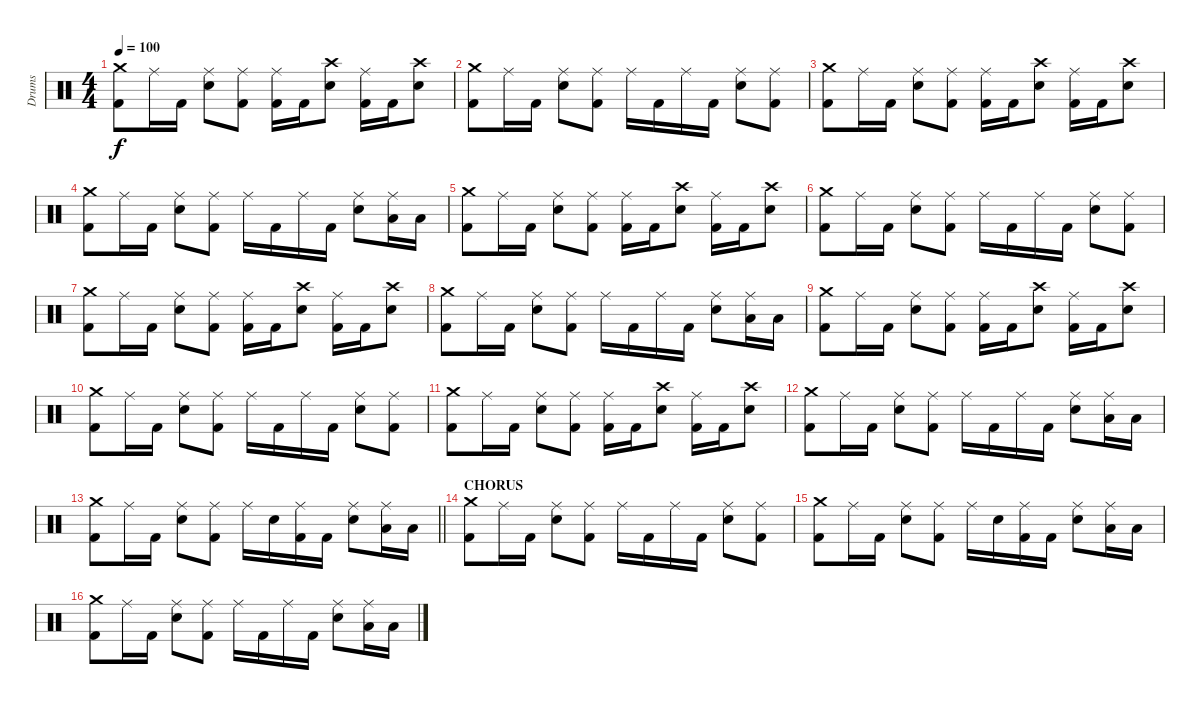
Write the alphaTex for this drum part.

\track ("Drums" "Drums") {instrument percussion}
\staff {score}
\articulation defaults
\ts (4 4)
\tempo 100
\clef neutral
\ks c
("Crash medium (hit)" "Kick (hit) 2").8{dy f} "Ride (middle)".16 "Kick (hit) 2".16 ("Ride (middle)" "Snare (hit) 2").8 ("Ride (middle)" "Kick (hit) 2").8 ("Ride (middle)" "Kick (hit) 2").16 "Kick (hit) 2".16 ("Crash high (hit)" "Snare (hit) 2").8 ("Ride (middle)" "Kick (hit) 2").16 "Kick (hit) 2".16 ("Crash high (hit)" "Snare (hit) 2").8 |
("Crash medium (hit)" "Kick (hit) 2").8 "Ride (middle)".16 "Kick (hit) 2".16 ("Ride (middle)" "Snare (hit) 2").8 ("Ride (middle)" "Kick (hit) 2").8 "Ride (middle)".16 "Kick (hit) 2".16 "Ride (middle)".16 "Kick (hit) 2".16 ("Ride (middle)" "Snare (hit) 2").8 ("Ride (middle)" "Kick (hit) 2").8 |
("Crash medium (hit)" "Kick (hit) 2").8 "Ride (middle)".16 "Kick (hit) 2".16 ("Ride (middle)" "Snare (hit) 2").8 ("Ride (middle)" "Kick (hit) 2").8 ("Ride (middle)" "Kick (hit) 2").16 "Kick (hit) 2".16 ("Crash high (hit)" "Snare (hit) 2").8 ("Ride (middle)" "Kick (hit) 2").16 "Kick (hit) 2".16 ("Crash high (hit)" "Snare (hit) 2").8 |
("Crash medium (hit)" "Kick (hit) 2").8 "Ride (middle)".16 "Kick (hit) 2".16 ("Ride (middle)" "Snare (hit) 2").8 ("Ride (middle)" "Kick (hit) 2").8 "Ride (middle)".16 "Kick (hit) 2".16 "Ride (middle)".16 "Kick (hit) 2".16 ("Ride (middle)" "Snare (hit) 2").8 ("Ride (middle)" "Low Tom (hit)").16 "Low Tom (hit)".16 |
("Crash medium (hit)" "Kick (hit) 2").8 "Ride (middle)".16 "Kick (hit) 2".16 ("Ride (middle)" "Snare (hit) 2").8 ("Ride (middle)" "Kick (hit) 2").8 ("Ride (middle)" "Kick (hit) 2").16 "Kick (hit) 2".16 ("Crash high (hit)" "Snare (hit) 2").8 ("Ride (middle)" "Kick (hit) 2").16 "Kick (hit) 2".16 ("Crash high (hit)" "Snare (hit) 2").8 |
("Crash medium (hit)" "Kick (hit) 2").8 "Ride (middle)".16 "Kick (hit) 2".16 ("Ride (middle)" "Snare (hit) 2").8 ("Ride (middle)" "Kick (hit) 2").8 "Ride (middle)".16 "Kick (hit) 2".16 "Ride (middle)".16 "Kick (hit) 2".16 ("Ride (middle)" "Snare (hit) 2").8 ("Ride (middle)" "Kick (hit) 2").8 |
("Crash medium (hit)" "Kick (hit) 2").8 "Ride (middle)".16 "Kick (hit) 2".16 ("Ride (middle)" "Snare (hit) 2").8 ("Ride (middle)" "Kick (hit) 2").8 ("Ride (middle)" "Kick (hit) 2").16 "Kick (hit) 2".16 ("Crash high (hit)" "Snare (hit) 2").8 ("Ride (middle)" "Kick (hit) 2").16 "Kick (hit) 2".16 ("Crash high (hit)" "Snare (hit) 2").8 |
("Crash medium (hit)" "Kick (hit) 2").8 "Ride (middle)".16 "Kick (hit) 2".16 ("Ride (middle)" "Snare (hit) 2").8 ("Ride (middle)" "Kick (hit) 2").8 "Ride (middle)".16 "Kick (hit) 2".16 "Ride (middle)".16 "Kick (hit) 2".16 ("Ride (middle)" "Snare (hit) 2").8 ("Ride (middle)" "Low Tom (hit)").16 "Low Tom (hit)".16 |
("Crash medium (hit)" "Kick (hit) 2").8 "Ride (middle)".16 "Kick (hit) 2".16 ("Ride (middle)" "Snare (hit) 2").8 ("Ride (middle)" "Kick (hit) 2").8 ("Ride (middle)" "Kick (hit) 2").16 "Kick (hit) 2".16 ("Crash high (hit)" "Snare (hit) 2").8 ("Ride (middle)" "Kick (hit) 2").16 "Kick (hit) 2".16 ("Crash high (hit)" "Snare (hit) 2").8 |
("Crash medium (hit)" "Kick (hit) 2").8 "Ride (middle)".16 "Kick (hit) 2".16 ("Ride (middle)" "Snare (hit) 2").8 ("Ride (middle)" "Kick (hit) 2").8 "Ride (middle)".16 "Kick (hit) 2".16 "Ride (middle)".16 "Kick (hit) 2".16 ("Ride (middle)" "Snare (hit) 2").8 ("Ride (middle)" "Kick (hit) 2").8 |
("Crash medium (hit)" "Kick (hit) 2").8 "Ride (middle)".16 "Kick (hit) 2".16 ("Ride (middle)" "Snare (hit) 2").8 ("Ride (middle)" "Kick (hit) 2").8 ("Ride (middle)" "Kick (hit) 2").16 "Kick (hit) 2".16 ("Crash high (hit)" "Snare (hit) 2").8 ("Ride (middle)" "Kick (hit) 2").16 "Kick (hit) 2".16 ("Crash high (hit)" "Snare (hit) 2").8 |
("Crash medium (hit)" "Kick (hit) 2").8 "Ride (middle)".16 "Kick (hit) 2".16 ("Ride (middle)" "Snare (hit) 2").8 ("Ride (middle)" "Kick (hit) 2").8 "Ride (middle)".16 "Kick (hit) 2".16 "Ride (middle)".16 "Kick (hit) 2".16 ("Ride (middle)" "Snare (hit) 2").8 ("Ride (middle)" "Low Tom (hit)").16 "Low Tom (hit)".16 |
\barLineRight lightlight
("Crash medium (hit)" "Kick (hit) 2").8 "Ride (middle)".16 "Kick (hit) 2".16 ("Ride (middle)" "Snare (hit) 2").8 ("Ride (middle)" "Kick (hit) 2").8 "Ride (middle)".16 "Snare (hit) 2".16 ("Ride (middle)" "Kick (hit) 2").16 "Kick (hit) 2".16 ("Ride (middle)" "Snare (hit) 2").8 ("Ride (middle)" "Low Tom (hit)").16 "Low Tom (hit)".16 |
\section ("" "CHORUS")
("Crash medium (hit)" "Kick (hit) 2").8 "Ride (middle)".16 "Kick (hit) 2".16 ("Ride (middle)" "Snare (hit) 2").8 ("Ride (middle)" "Kick (hit) 2").8 "Ride (middle)".16 "Kick (hit) 2".16 "Ride (middle)".16 "Kick (hit) 2".16 ("Ride (middle)" "Snare (hit) 2").8 ("Ride (middle)" "Kick (hit) 2").8 |
("Crash medium (hit)" "Kick (hit) 2").8 "Ride (middle)".16 "Kick (hit) 2".16 ("Ride (middle)" "Snare (hit) 2").8 ("Ride (middle)" "Kick (hit) 2").8 "Ride (middle)".16 "Snare (hit) 2".16 ("Ride (middle)" "Kick (hit) 2").16 "Kick (hit) 2".16 ("Ride (middle)" "Snare (hit) 2").8 ("Ride (middle)" "Low Tom (hit)").16 "Low Tom (hit)".16 |
("Crash medium (hit)" "Kick (hit) 2").8 "Ride (middle)".16 "Kick (hit) 2".16 ("Ride (middle)" "Snare (hit) 2").8 ("Ride (middle)" "Kick (hit) 2").8 "Ride (middle)".16 "Kick (hit) 2".16 "Ride (middle)".16 "Kick (hit) 2".16 ("Ride (middle)" "Snare (hit) 2").8 ("Ride (middle)" "Low Tom (hit)").16 "Low Tom (hit)".16
